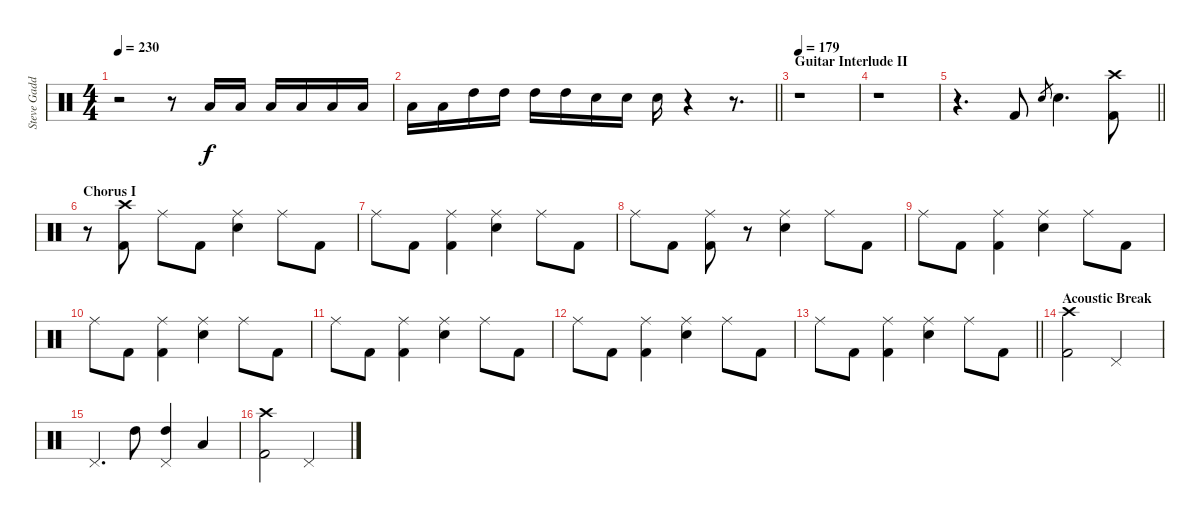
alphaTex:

\track ("Steve Gadd" "Steve Gadd") {instrument percussion}
\staff {score}
\articulation defaults
\ts (4 4)
\tempo 230
\clef neutral
\ks c
r.2{dy f} r.8 "Low Floor Tom (hit)".16 "Low Floor Tom (hit)".16 "Low Floor Tom (hit)".16 "Low Floor Tom (hit)".16 "Low Tom (hit)".16 "Low Tom (hit)".16 |
\barLineRight lightlight "Low Tom (hit)".16 "Low Tom (hit)".16 "High Tom (hit)".16 "High Tom (hit)".16 "High Tom (hit)".16 "High Tom (hit)".16 "Electric Snare (hit)".16 "Electric Snare (hit)".16 "Electric Snare (hit)".16
r.4 r.8{d} |
\section ("" "Guitar Interlude II")
\tempo 179
r.1 |
r.1 |
\barLineRight lightlight
r.4{d} "Kick (hit) 2".8 "Electric Snare (hit)".8{gr} "Electric Snare (hit)".4{d} ("Crash high (hit)" "Kick (hit) 2").8 |
\section ("" "Chorus I")
r.8 ("Crash high (hit)" "Kick (hit) 2").8 "Ride (middle)".8 "Kick (hit) 2".8 ("Ride (middle)" "Electric Snare (hit)").4 "Ride (middle)".8 "Kick (hit) 2".8 |
"Ride (middle)".8 "Kick (hit) 2".8 ("Ride (middle)" "Kick (hit) 2").4 ("Ride (middle)" "Electric Snare (hit)").4 "Ride (middle)".8 "Kick (hit) 2".8 |
"Ride (middle)".8 "Kick (hit) 2".8 ("Ride (middle)" "Kick (hit) 2").8 r.8 ("Ride (middle)" "Electric Snare (hit)").4 "Ride (middle)".8 "Kick (hit) 2".8 |
"Ride (middle)".8 "Kick (hit) 2".8 ("Ride (middle)" "Kick (hit) 2").4 ("Ride (middle)" "Electric Snare (hit)").4 "Ride (middle)".8 "Kick (hit) 2".8 |
"Ride (middle)".8 "Kick (hit) 2".8 ("Ride (middle)" "Kick (hit) 2").4 ("Ride (middle)" "Electric Snare (hit)").4 "Ride (middle)".8 "Kick (hit) 2".8 |
"Ride (middle)".8 "Kick (hit) 2".8 ("Ride (middle)" "Kick (hit) 2").4 ("Ride (middle)" "Electric Snare (hit)").4 "Ride (middle)".8 "Kick (hit) 2".8 |
"Ride (middle)".8 "Kick (hit) 2".8 ("Ride (middle)" "Kick (hit) 2").4 ("Ride (middle)" "Electric Snare (hit)").4 "Ride (middle)".8 "Kick (hit) 2".8 |
\barLineRight lightlight "Ride (middle)".8 "Kick (hit) 2".8
("Ride (middle)" "Kick (hit) 2").4 ("Ride (middle)" "Electric Snare (hit)").4 "Ride (middle)".8 "Kick (hit) 2".8 |
\section ("" "Acoustic Break")
("Crash high (hit)" "Kick (hit) 2").2 "Pedal Hi-Hat (hit)".2 |
"Pedal Hi-Hat (hit)".4{d} "High Tom (hit)".8 ("Pedal Hi-Hat (hit)" "High Tom (hit)").4 "Low Tom (hit)".4 |
("Crash high (hit)" "Kick (hit) 2").2 "Pedal Hi-Hat (hit)".2
